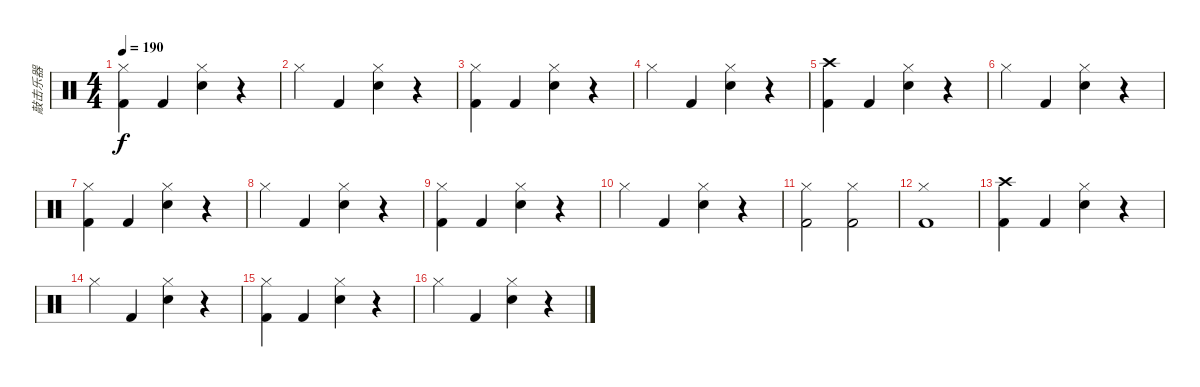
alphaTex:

\track ("敲击乐器" "敲击乐器") {instrument percussion}
\staff {score}
\articulation defaults
\ts (4 4)
\tempo 190
\clef neutral
\ks c
("Kick (hit) 2" "Hi-Hat (closed)").4{dy f} "Kick (hit) 2".4 ("Hi-Hat (closed)" "Electric Snare (hit)").4 r.4 |
"Hi-Hat (closed)".4 "Kick (hit) 2".4 ("Electric Snare (hit)" "Hi-Hat (closed)").4 r.4 |
("Kick (hit) 2" "Hi-Hat (closed)").4 "Kick (hit) 2".4 ("Hi-Hat (closed)" "Electric Snare (hit)").4 r.4 |
"Hi-Hat (closed)".4 "Kick (hit) 2".4 ("Electric Snare (hit)" "Hi-Hat (closed)").4 r.4 |
("Kick (hit) 2" "Crash high (hit)").4 "Kick (hit) 2".4 ("Hi-Hat (closed)" "Electric Snare (hit)").4 r.4 |
"Hi-Hat (closed)".4 "Kick (hit) 2".4 ("Electric Snare (hit)" "Hi-Hat (closed)").4 r.4 |
("Kick (hit) 2" "Hi-Hat (closed)").4 "Kick (hit) 2".4 ("Hi-Hat (closed)" "Electric Snare (hit)").4 r.4 |
"Hi-Hat (closed)".4 "Kick (hit) 2".4 ("Electric Snare (hit)" "Hi-Hat (closed)").4 r.4 |
("Kick (hit) 2" "Hi-Hat (closed)").4 "Kick (hit) 2".4 ("Hi-Hat (closed)" "Electric Snare (hit)").4 r.4 |
"Hi-Hat (closed)".4 "Kick (hit) 2".4 ("Electric Snare (hit)" "Hi-Hat (closed)").4 r.4 |
("Hi-Hat (closed)" "Kick (hit) 2").2 ("Hi-Hat (closed)" "Kick (hit) 2").2 |
("Hi-Hat (closed)" "Kick (hit) 2").1 |
("Kick (hit) 2" "Crash high (hit)").4 "Kick (hit) 2".4 ("Hi-Hat (closed)" "Electric Snare (hit)").4 r.4 |
"Hi-Hat (closed)".4 "Kick (hit) 2".4 ("Electric Snare (hit)" "Hi-Hat (closed)").4 r.4 |
("Kick (hit) 2" "Hi-Hat (closed)").4 "Kick (hit) 2".4 ("Hi-Hat (closed)" "Electric Snare (hit)").4 r.4 |
"Hi-Hat (closed)".4 "Kick (hit) 2".4 ("Electric Snare (hit)" "Hi-Hat (closed)").4 r.4
